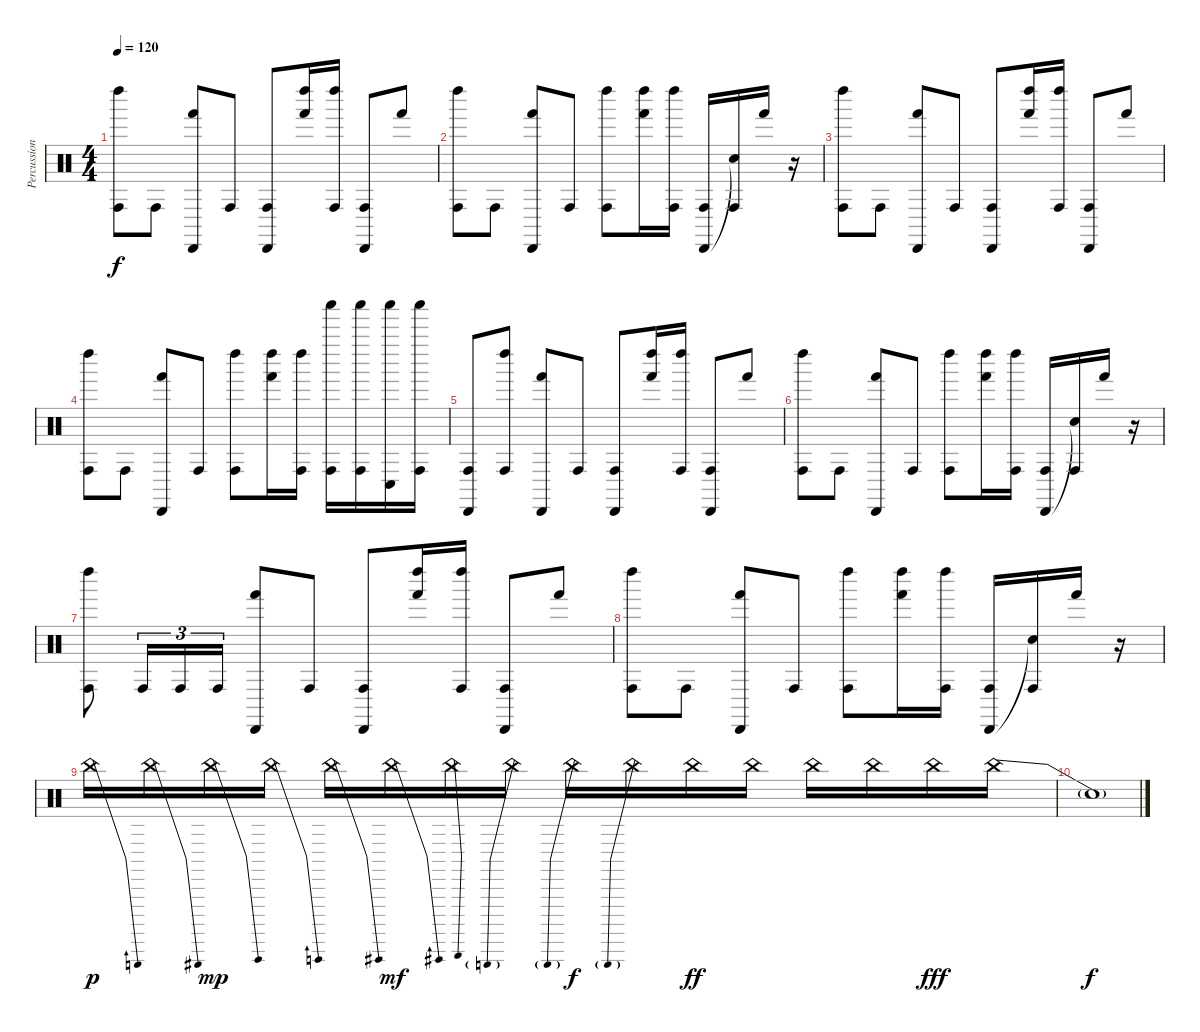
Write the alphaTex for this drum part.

\track ("Percussions" "Percussion") {instrument percussion}
\staff {score}
\articulation defaults
\ts (4 4)
\tempo 120
\clef neutral
\ks c
("Left Maraca (hit)" "Conga high (hit)").8{dy f} "Conga high (hit)".8 ("Cabasa (hit)" "Hand (hit)").8 "Conga high (hit)".8 ("Cabasa (hit)" "Conga high (hit)").8 ("Left Maraca (hit)" "Hand (hit)").16 ("Left Maraca (hit)" "Conga high (hit)").16 ("Cabasa (hit)" "Conga high (hit)").8 "Hand (hit)".8 |
("Left Maraca (hit)" "Conga high (hit)").8 "Conga high (hit)".8 ("Cabasa (hit)" "Hand (hit)").8 "Conga high (hit)".8 ("Left Maraca (hit)" "Conga high (hit)").8 ("Left Maraca (hit)" "Hand (hit)").16 ("Left Maraca (hit)" "Conga high (hit)").16 ("Cabasa (hit)" "Conga high (hit)").16 ("Snare (hit)"{t} "Conga high (hit)").16 "Hand (hit)".16 r.16 |
("Left Maraca (hit)" "Conga high (hit)").8 "Conga high (hit)".8 ("Cabasa (hit)" "Hand (hit)").8 "Conga high (hit)".8 ("Cabasa (hit)" "Conga high (hit)").8 ("Left Maraca (hit)" "Hand (hit)").16 ("Left Maraca (hit)" "Conga high (hit)").16 ("Cabasa (hit)" "Conga high (hit)").8 "Hand (hit)".8 |
("Left Maraca (hit)" "Conga high (hit)").8 "Conga high (hit)".8 ("Cabasa (hit)" "Hand (hit)").8 "Conga high (hit)".8 ("Left Maraca (hit)" "Conga high (hit)").8 ("Left Maraca (hit)" "Hand (hit)").16 ("Left Maraca (hit)" "Conga high (hit)").16 ("Shaker (hit)" "Conga high (hit)").16 ("Shaker (hit)" "Conga high (hit)").16 ("Shaker (hit)" "Conga low (hit)").16 ("Shaker (hit)" "Conga high (hit)").16 |
("Cabasa (hit)" "Conga high (hit)").8 ("Left Maraca (hit)" "Conga high (hit)").8 ("Cabasa (hit)" "Hand (hit)").8 "Conga high (hit)".8 ("Cabasa (hit)" "Conga high (hit)").8 ("Left Maraca (hit)" "Hand (hit)").16 ("Left Maraca (hit)" "Conga high (hit)").16 ("Cabasa (hit)" "Conga high (hit)").8 "Hand (hit)".8 |
("Left Maraca (hit)" "Conga high (hit)").8 "Conga high (hit)".8 ("Cabasa (hit)" "Hand (hit)").8 "Conga high (hit)".8 ("Left Maraca (hit)" "Conga high (hit)").8 ("Left Maraca (hit)" "Hand (hit)").16 ("Left Maraca (hit)" "Conga high (hit)").16 ("Cabasa (hit)" "Conga high (hit)").16 ("Snare (hit)"{t} "Conga high (hit)").16 "Hand (hit)".16 r.16 |
("Left Maraca (hit)" "Conga high (hit)").8 "Conga high (hit)".16{tu (3 2)} "Conga high (hit)".16{tu (3 2)} "Conga high (hit)".16{tu (3 2)} ("Cabasa (hit)" "Hand (hit)").8 "Conga high (hit)".8 ("Cabasa (hit)" "Conga high (hit)").8 ("Left Maraca (hit)" "Hand (hit)").16 ("Left Maraca (hit)" "Conga high (hit)").16 ("Cabasa (hit)" "Conga high (hit)").8 "Hand (hit)".8 |
("Left Maraca (hit)" "Conga high (hit)").8 "Conga high (hit)".8 ("Cabasa (hit)" "Hand (hit)").8 "Conga high (hit)".8 ("Left Maraca (hit)" "Conga high (hit)").8 ("Left Maraca (hit)" "Hand (hit)").16 ("Left Maraca (hit)" "Conga high (hit)").16 ("Cabasa (hit)" "Conga high (hit)").16 ("Snare (hit)"{t} "Conga high (hit)").16 "Hand (hit)".16 r.16 |
"China (hit)"{be (bend 0 0 60 1)}.16{dy p} "China (hit)"{be (bend 0 0 60 2)}.16 "China (hit)"{be (bend 0 0 60 4)}.16{dy mp} "China (hit)"{be (bend 0 0 60 5)}.16 "China (hit)"{be (bend 0 0 60 6)}.16 "China (hit)"{be (bend 0 0 60 7)}.16{dy mf} "China (hit)"{be (bend 0 0 60 8)}.16 "China (hit)"{be (prebend 0 9 60 9)}.16 "China (hit)"{be (prebend 0 10 60 10)}.16{dy f} "China (hit)"{be (prebend 0 9 60 9)}.16 "China (hit)"{be (custom 0 8 20 8 40 0 60 0)}.16{dy ff} "China (hit)"{be (custom 0 7 20 7 40 0 60 0)}.16 "China (hit)"{be (custom 0 5 20 5 40 0 60 0)}.16 "China (hit)"{be (custom 0 4 20 4 40 0 60 0)}.16 "China (hit)"{be (custom 0 3 20 3 40 0 60 0)}.16{dy fff} "China (hit)"{be (custom 0 12 20 12 40 0 60 0)}.16 |
"Snare (hit)"{t}.1{dy f}
